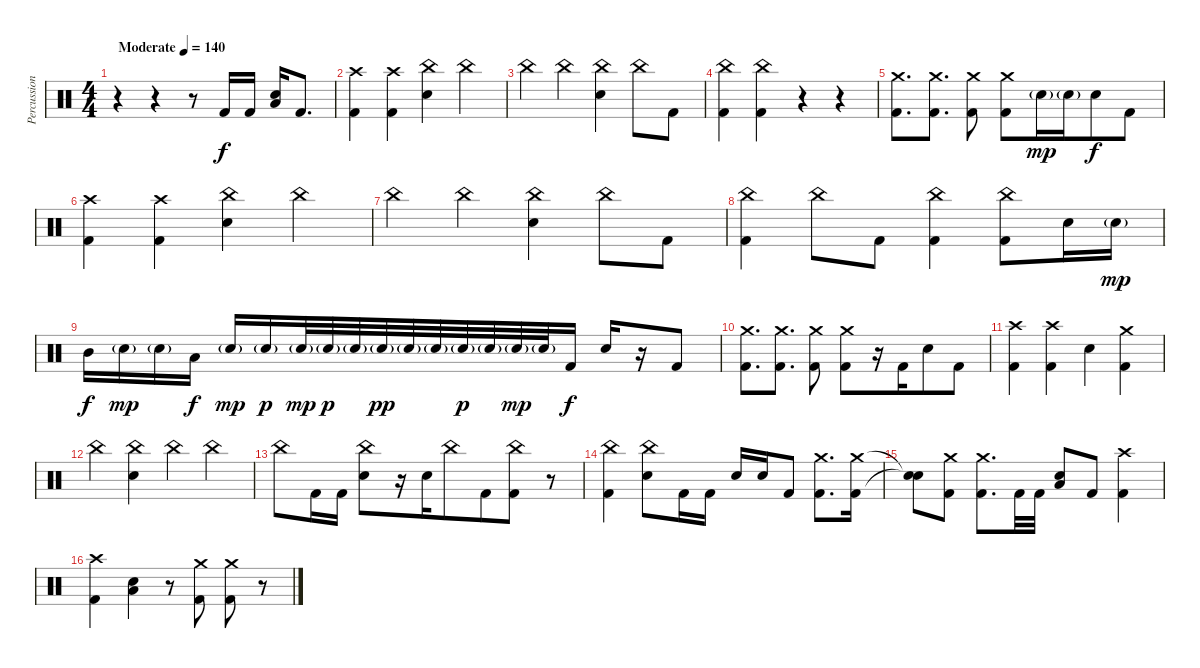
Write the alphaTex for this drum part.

\track ("Percussion" "Percussion") {instrument percussion}
\staff {score}
\articulation defaults
\ts (4 4)
\tempo (140 "Moderate")
\clef neutral
\ks c
r.4{dy f beam merge} r.4 r.8 "Kick (hit) 2".16{beam merge} "Kick (hit) 2".16 ("Electric Snare (hit)" "Low Floor Tom (hit)").16 "Kick (hit) 2".8{d} |
("Crash high (hit)" "Kick (hit) 2").4{beam merge} ("Crash high (hit)" "Kick (hit) 2").4 ("China (hit)" "Electric Snare (hit)").4{beam merge} "China (hit)".4 |
"China (hit)".4 "China (hit)".4 ("China (hit)" "Electric Snare (hit)").4{beam merge} "China (hit)".8 "Kick (hit) 2".8 |
("China (hit)" "Kick (hit) 2").4 ("China (hit)" "Kick (hit) 2").4{beam merge} r.4 r.4 |
("Crash medium (hit)" "Kick (hit) 2").8{d} ("Crash medium (hit)" "Kick (hit) 2").8{d} ("Crash medium (hit)" "Kick (hit) 2").8 ("Crash medium (hit)" "Kick (hit) 2").8 "Electric Snare (hit)"{g}.16{dy mp} "Electric Snare (hit)"{g}.16{beam merge} "Electric Snare (hit)".8{dy f} "Kick (hit) 2".8 |
("Crash high (hit)" "Kick (hit) 2").4{beam merge} ("Crash high (hit)" "Kick (hit) 2").4 ("China (hit)" "Electric Snare (hit)").4{beam merge} "China (hit)".4 |
"China (hit)".4 "China (hit)".4 ("China (hit)" "Electric Snare (hit)").4{beam merge} "China (hit)".8 "Kick (hit) 2".8 |
("China (hit)" "Kick (hit) 2").4 "China (hit)".8{beam merge} "Kick (hit) 2".8 ("China (hit)" "Kick (hit) 2").4{beam merge} ("China (hit)" "Kick (hit) 2").8 "Electric Snare (hit)".16{beam merge} "Electric Snare (hit)"{g}.16{dy mp} |
"Mid Tom (hit)".16{dy f} "Electric Snare (hit)"{g}.16{dy mp} "Electric Snare (hit)"{g}.16{beam merge} "Low Tom (hit)".16{dy f} "Electric Snare (hit)"{g}.16{dy mp} "Electric Snare (hit)"{g}.16{dy p} "Electric Snare (hit)"{g}.32{dy mp} "Electric Snare (hit)"{g}.32{dy p} "Electric Snare (hit)"{g}.32{beam merge} "Electric Snare (hit)"{g}.32{dy pp beam merge} "Electric Snare (hit)"{g}.32{beam merge} "Electric Snare (hit)"{g}.32 "Electric Snare (hit)"{g}.32{dy p beam merge} "Electric Snare (hit)"{g}.32 "Electric Snare (hit)"{g}.32{dy mp} "Electric Snare (hit)"{g}.32{beam merge} "Kick (hit) 2".16{dy f} "Electric Snare (hit)".16 r.16 "Kick (hit) 2".8 |
("Crash medium (hit)" "Kick (hit) 2").8{d} ("Crash medium (hit)" "Kick (hit) 2").8{d} ("Crash medium (hit)" "Kick (hit) 2").8 ("Crash medium (hit)" "Kick (hit) 2").8 r.16 "Kick (hit) 2".16{beam merge} "Electric Snare (hit)".8 "Kick (hit) 2".8 |
("Crash high (hit)" "Kick (hit) 2").4{beam merge} ("Crash high (hit)" "Kick (hit) 2").4 "Electric Snare (hit)".4{beam merge} ("Crash medium (hit)" "Kick (hit) 2").4 |
"China (hit)".4 ("China (hit)" "Electric Snare (hit)").4 "China (hit)".4{beam merge} "China (hit)".4 |
"China (hit)".8 "Kick (hit) 2".16{beam merge} "Kick (hit) 2".16 ("China (hit)" "Electric Snare (hit)").8 r.16 "Electric Snare (hit)".16{beam merge} "China (hit)".8{beam merge} "Kick (hit) 2".8{beam merge} ("China (hit)" "Kick (hit) 2").8{beam merge} r.8 |
("China (hit)" "Kick (hit) 2").4 ("China (hit)" "Electric Snare (hit)").8 "Kick (hit) 2".16 "Kick (hit) 2".16 "Electric Snare (hit)".16 "Electric Snare (hit)".16{beam merge} "Kick (hit) 2".8 ("Crash medium (hit)" "Kick (hit) 2").8{d} ("Crash medium (hit)" "Kick (hit) 2").16 |
("Snare (hit)"{t} "Snare (hit)"{t}).8 ("Crash medium (hit)" "Kick (hit) 2").8 ("Crash medium (hit)" "Kick (hit) 2").8{d beam merge} "Kick (hit) 2".32 "Kick (hit) 2".32 ("Electric Snare (hit)" "Low Floor Tom (hit)").8 "Kick (hit) 2".8 ("Crash high (hit)" "Kick (hit) 2").4 |
("Crash high (hit)" "Kick (hit) 2").4{beam merge} ("Electric Snare (hit)" "Low Floor Tom (hit)").4 r.8 ("Crash medium (hit)" "Kick (hit) 2").8 ("Crash medium (hit)" "Kick (hit) 2").8{beam merge} r.8
